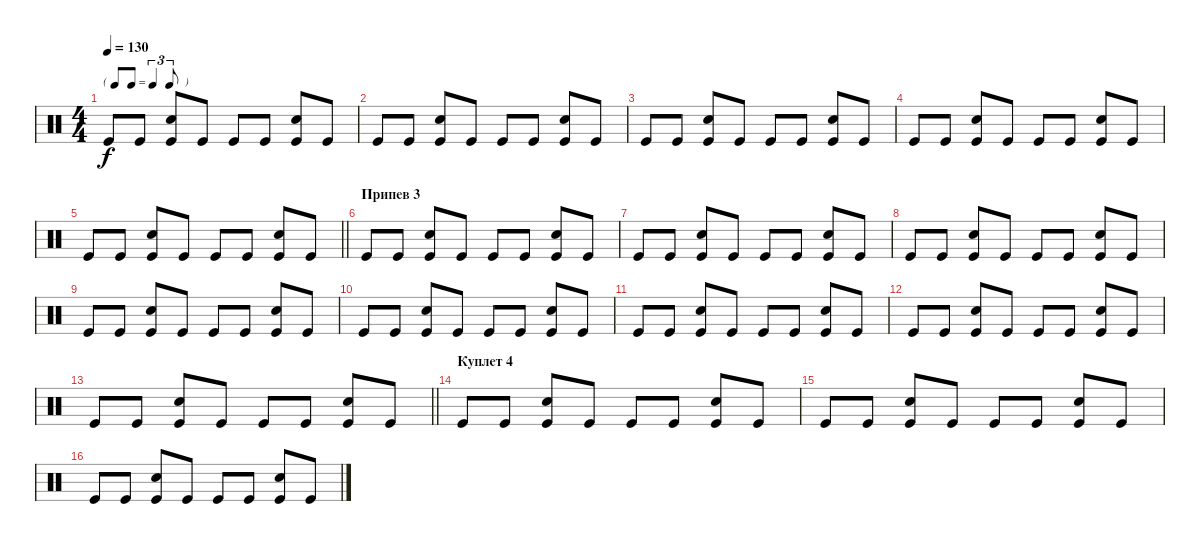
\track "" {instrument percussion}
\staff {score}
\articulation defaults
\ts (4 4)
\tf triplet8th
\tempo 130
\clef neutral
\ks c "Kick (hit)".8{dy f} "Kick (hit)".8
("Snare (hit) 2" "Kick (hit)").8 "Kick (hit)".8 "Kick (hit)".8 "Kick (hit)".8 ("Snare (hit) 2" "Kick (hit)").8 "Kick (hit)".8 |
"Kick (hit)".8 "Kick (hit)".8 ("Snare (hit) 2" "Kick (hit)").8 "Kick (hit)".8 "Kick (hit)".8 "Kick (hit)".8 ("Snare (hit) 2" "Kick (hit)").8 "Kick (hit)".8 |
"Kick (hit)".8 "Kick (hit)".8 ("Snare (hit) 2" "Kick (hit)").8 "Kick (hit)".8 "Kick (hit)".8 "Kick (hit)".8 ("Snare (hit) 2" "Kick (hit)").8 "Kick (hit)".8 |
"Kick (hit)".8 "Kick (hit)".8 ("Snare (hit) 2" "Kick (hit)").8 "Kick (hit)".8 "Kick (hit)".8 "Kick (hit)".8 ("Snare (hit) 2" "Kick (hit)").8 "Kick (hit)".8 |
\barLineRight lightlight "Kick (hit)".8 "Kick (hit)".8
("Snare (hit) 2" "Kick (hit)").8 "Kick (hit)".8 "Kick (hit)".8 "Kick (hit)".8 ("Snare (hit) 2" "Kick (hit)").8 "Kick (hit)".8 |
\section ("" "Припев 3")
"Kick (hit)".8 "Kick (hit)".8 ("Snare (hit) 2" "Kick (hit)").8 "Kick (hit)".8 "Kick (hit)".8 "Kick (hit)".8 ("Snare (hit) 2" "Kick (hit)").8 "Kick (hit)".8 |
"Kick (hit)".8 "Kick (hit)".8 ("Snare (hit) 2" "Kick (hit)").8 "Kick (hit)".8 "Kick (hit)".8 "Kick (hit)".8 ("Snare (hit) 2" "Kick (hit)").8 "Kick (hit)".8 |
"Kick (hit)".8 "Kick (hit)".8 ("Snare (hit) 2" "Kick (hit)").8 "Kick (hit)".8 "Kick (hit)".8 "Kick (hit)".8 ("Snare (hit) 2" "Kick (hit)").8 "Kick (hit)".8 |
"Kick (hit)".8 "Kick (hit)".8 ("Snare (hit) 2" "Kick (hit)").8 "Kick (hit)".8 "Kick (hit)".8 "Kick (hit)".8 ("Snare (hit) 2" "Kick (hit)").8 "Kick (hit)".8 |
"Kick (hit)".8 "Kick (hit)".8 ("Snare (hit) 2" "Kick (hit)").8 "Kick (hit)".8 "Kick (hit)".8 "Kick (hit)".8 ("Snare (hit) 2" "Kick (hit)").8 "Kick (hit)".8 |
"Kick (hit)".8 "Kick (hit)".8 ("Snare (hit) 2" "Kick (hit)").8 "Kick (hit)".8 "Kick (hit)".8 "Kick (hit)".8 ("Snare (hit) 2" "Kick (hit)").8 "Kick (hit)".8 |
"Kick (hit)".8 "Kick (hit)".8 ("Snare (hit) 2" "Kick (hit)").8 "Kick (hit)".8 "Kick (hit)".8 "Kick (hit)".8 ("Snare (hit) 2" "Kick (hit)").8 "Kick (hit)".8 |
\barLineRight lightlight "Kick (hit)".8 "Kick (hit)".8
("Snare (hit) 2" "Kick (hit)").8 "Kick (hit)".8 "Kick (hit)".8 "Kick (hit)".8 ("Snare (hit) 2" "Kick (hit)").8 "Kick (hit)".8 |
\section ("" "Куплет 4")
"Kick (hit)".8 "Kick (hit)".8 ("Snare (hit) 2" "Kick (hit)").8 "Kick (hit)".8 "Kick (hit)".8 "Kick (hit)".8 ("Snare (hit) 2" "Kick (hit)").8 "Kick (hit)".8 |
"Kick (hit)".8 "Kick (hit)".8 ("Snare (hit) 2" "Kick (hit)").8 "Kick (hit)".8 "Kick (hit)".8 "Kick (hit)".8 ("Snare (hit) 2" "Kick (hit)").8 "Kick (hit)".8 |
"Kick (hit)".8 "Kick (hit)".8 ("Snare (hit) 2" "Kick (hit)").8 "Kick (hit)".8 "Kick (hit)".8 "Kick (hit)".8 ("Snare (hit) 2" "Kick (hit)").8 "Kick (hit)".8
